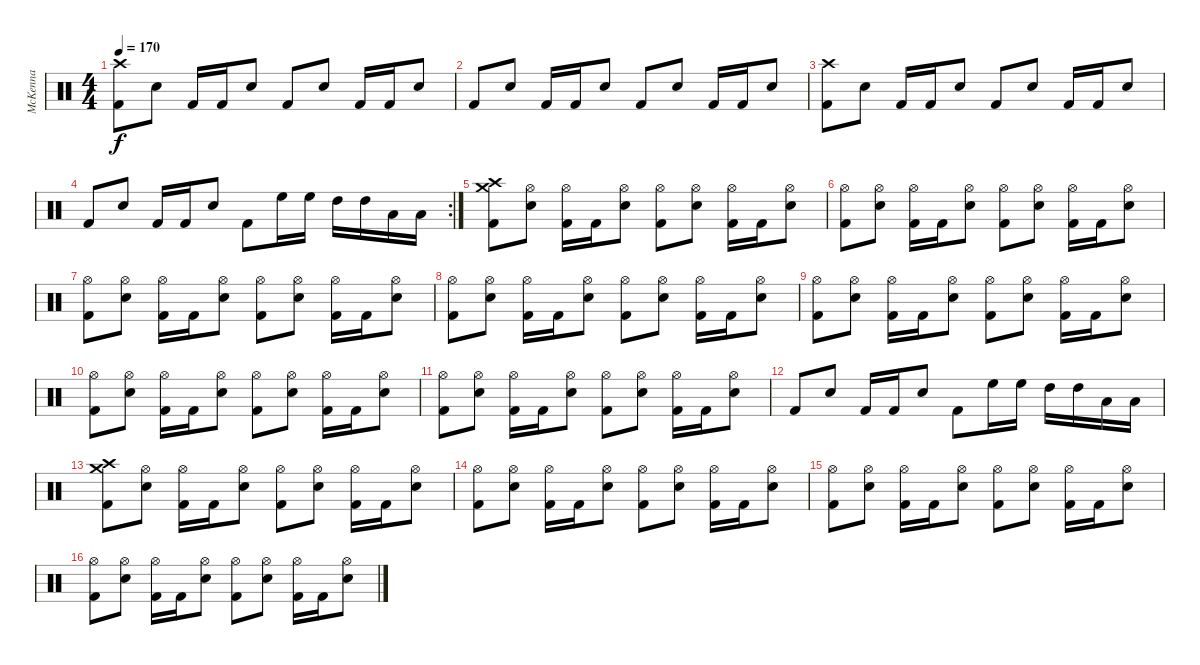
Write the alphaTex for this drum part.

\track ("McKenna" "McKenna") {instrument percussion}
\staff {score}
\articulation defaults
\ts (4 4)
\tempo 170
\clef neutral
\ks c
("Crash high (hit)" "Kick (hit) 2").8{dy f} "Snare (hit) 2".8 "Kick (hit) 2".16 "Kick (hit) 2".16 "Snare (hit) 2".8 "Kick (hit) 2".8 "Snare (hit) 2".8 "Kick (hit) 2".16 "Kick (hit) 2".16 "Snare (hit) 2".8 |
"Kick (hit) 2".8 "Snare (hit) 2".8 "Kick (hit) 2".16 "Kick (hit) 2".16 "Snare (hit) 2".8 "Kick (hit) 2".8 "Snare (hit) 2".8 "Kick (hit) 2".16 "Kick (hit) 2".16 "Snare (hit) 2".8 |
("Crash high (hit)" "Kick (hit) 2").8 "Snare (hit) 2".8 "Kick (hit) 2".16 "Kick (hit) 2".16 "Snare (hit) 2".8 "Kick (hit) 2".8 "Snare (hit) 2".8 "Kick (hit) 2".16 "Kick (hit) 2".16 "Snare (hit) 2".8 |
\rc 2 "Kick (hit) 2".8 "Snare (hit) 2".8 "Kick (hit) 2".16 "Kick (hit) 2".16 "Snare (hit) 2".8 "Kick (hit) 2".8 "High Floor Tom (hit)".16 "High Floor Tom (hit)".16 "High Tom (hit)".16 "High Tom (hit)".16 "Low Tom (hit)".16 "Low Tom (hit)".16
|
("Crash medium (hit)" "Crash high (hit)" "Kick (hit) 2").8 ("Hi-Hat (open)" "Snare (hit) 2").8 ("Hi-Hat (open)" "Kick (hit) 2").16 "Kick (hit) 2".16 ("Hi-Hat (open)" "Snare (hit) 2").8 ("Hi-Hat (open)" "Kick (hit) 2").8 ("Hi-Hat (open)" "Snare (hit) 2").8 ("Hi-Hat (open)" "Kick (hit) 2").16 "Kick (hit) 2".16 ("Hi-Hat (open)" "Snare (hit) 2").8 |
("Hi-Hat (open)" "Kick (hit) 2").8 ("Hi-Hat (open)" "Snare (hit) 2").8 ("Hi-Hat (open)" "Kick (hit) 2").16 "Kick (hit) 2".16 ("Hi-Hat (open)" "Snare (hit) 2").8 ("Hi-Hat (open)" "Kick (hit) 2").8 ("Hi-Hat (open)" "Snare (hit) 2").8 ("Hi-Hat (open)" "Kick (hit) 2").16 "Kick (hit) 2".16 ("Hi-Hat (open)" "Snare (hit) 2").8 |
("Hi-Hat (open)" "Kick (hit) 2").8 ("Hi-Hat (open)" "Snare (hit) 2").8 ("Hi-Hat (open)" "Kick (hit) 2").16 "Kick (hit) 2".16 ("Hi-Hat (open)" "Snare (hit) 2").8 ("Hi-Hat (open)" "Kick (hit) 2").8 ("Hi-Hat (open)" "Snare (hit) 2").8 ("Hi-Hat (open)" "Kick (hit) 2").16 "Kick (hit) 2".16 ("Hi-Hat (open)" "Snare (hit) 2").8 |
("Hi-Hat (open)" "Kick (hit) 2").8 ("Hi-Hat (open)" "Snare (hit) 2").8 ("Hi-Hat (open)" "Kick (hit) 2").16 "Kick (hit) 2".16 ("Hi-Hat (open)" "Snare (hit) 2").8 ("Hi-Hat (open)" "Kick (hit) 2").8 ("Hi-Hat (open)" "Snare (hit) 2").8 ("Hi-Hat (open)" "Kick (hit) 2").16 "Kick (hit) 2".16 ("Hi-Hat (open)" "Snare (hit) 2").8 |
("Hi-Hat (open)" "Kick (hit) 2").8 ("Hi-Hat (open)" "Snare (hit) 2").8 ("Hi-Hat (open)" "Kick (hit) 2").16 "Kick (hit) 2".16 ("Hi-Hat (open)" "Snare (hit) 2").8 ("Hi-Hat (open)" "Kick (hit) 2").8 ("Hi-Hat (open)" "Snare (hit) 2").8 ("Hi-Hat (open)" "Kick (hit) 2").16 "Kick (hit) 2".16 ("Hi-Hat (open)" "Snare (hit) 2").8 |
("Hi-Hat (open)" "Kick (hit) 2").8 ("Hi-Hat (open)" "Snare (hit) 2").8 ("Hi-Hat (open)" "Kick (hit) 2").16 "Kick (hit) 2".16 ("Hi-Hat (open)" "Snare (hit) 2").8 ("Hi-Hat (open)" "Kick (hit) 2").8 ("Hi-Hat (open)" "Snare (hit) 2").8 ("Hi-Hat (open)" "Kick (hit) 2").16 "Kick (hit) 2".16 ("Hi-Hat (open)" "Snare (hit) 2").8 |
("Hi-Hat (open)" "Kick (hit) 2").8 ("Hi-Hat (open)" "Snare (hit) 2").8 ("Hi-Hat (open)" "Kick (hit) 2").16 "Kick (hit) 2".16 ("Hi-Hat (open)" "Snare (hit) 2").8 ("Hi-Hat (open)" "Kick (hit) 2").8 ("Hi-Hat (open)" "Snare (hit) 2").8 ("Hi-Hat (open)" "Kick (hit) 2").16 "Kick (hit) 2".16 ("Hi-Hat (open)" "Snare (hit) 2").8 |
"Kick (hit) 2".8 "Snare (hit) 2".8 "Kick (hit) 2".16 "Kick (hit) 2".16 "Snare (hit) 2".8 "Kick (hit) 2".8 "High Floor Tom (hit)".16 "High Floor Tom (hit)".16 "High Tom (hit)".16 "High Tom (hit)".16 "Low Tom (hit)".16 "Low Tom (hit)".16 |
("Crash medium (hit)" "Crash high (hit)" "Kick (hit) 2").8 ("Hi-Hat (open)" "Snare (hit) 2").8 ("Hi-Hat (open)" "Kick (hit) 2").16 "Kick (hit) 2".16 ("Hi-Hat (open)" "Snare (hit) 2").8 ("Hi-Hat (open)" "Kick (hit) 2").8 ("Hi-Hat (open)" "Snare (hit) 2").8 ("Hi-Hat (open)" "Kick (hit) 2").16 "Kick (hit) 2".16 ("Hi-Hat (open)" "Snare (hit) 2").8 |
("Hi-Hat (open)" "Kick (hit) 2").8 ("Hi-Hat (open)" "Snare (hit) 2").8 ("Hi-Hat (open)" "Kick (hit) 2").16 "Kick (hit) 2".16 ("Hi-Hat (open)" "Snare (hit) 2").8 ("Hi-Hat (open)" "Kick (hit) 2").8 ("Hi-Hat (open)" "Snare (hit) 2").8 ("Hi-Hat (open)" "Kick (hit) 2").16 "Kick (hit) 2".16 ("Hi-Hat (open)" "Snare (hit) 2").8 |
("Hi-Hat (open)" "Kick (hit) 2").8 ("Hi-Hat (open)" "Snare (hit) 2").8 ("Hi-Hat (open)" "Kick (hit) 2").16 "Kick (hit) 2".16 ("Hi-Hat (open)" "Snare (hit) 2").8 ("Hi-Hat (open)" "Kick (hit) 2").8 ("Hi-Hat (open)" "Snare (hit) 2").8 ("Hi-Hat (open)" "Kick (hit) 2").16 "Kick (hit) 2".16 ("Hi-Hat (open)" "Snare (hit) 2").8 |
("Hi-Hat (open)" "Kick (hit) 2").8 ("Hi-Hat (open)" "Snare (hit) 2").8 ("Hi-Hat (open)" "Kick (hit) 2").16 "Kick (hit) 2".16 ("Hi-Hat (open)" "Snare (hit) 2").8 ("Hi-Hat (open)" "Kick (hit) 2").8 ("Hi-Hat (open)" "Snare (hit) 2").8 ("Hi-Hat (open)" "Kick (hit) 2").16 "Kick (hit) 2".16 ("Hi-Hat (open)" "Snare (hit) 2").8
